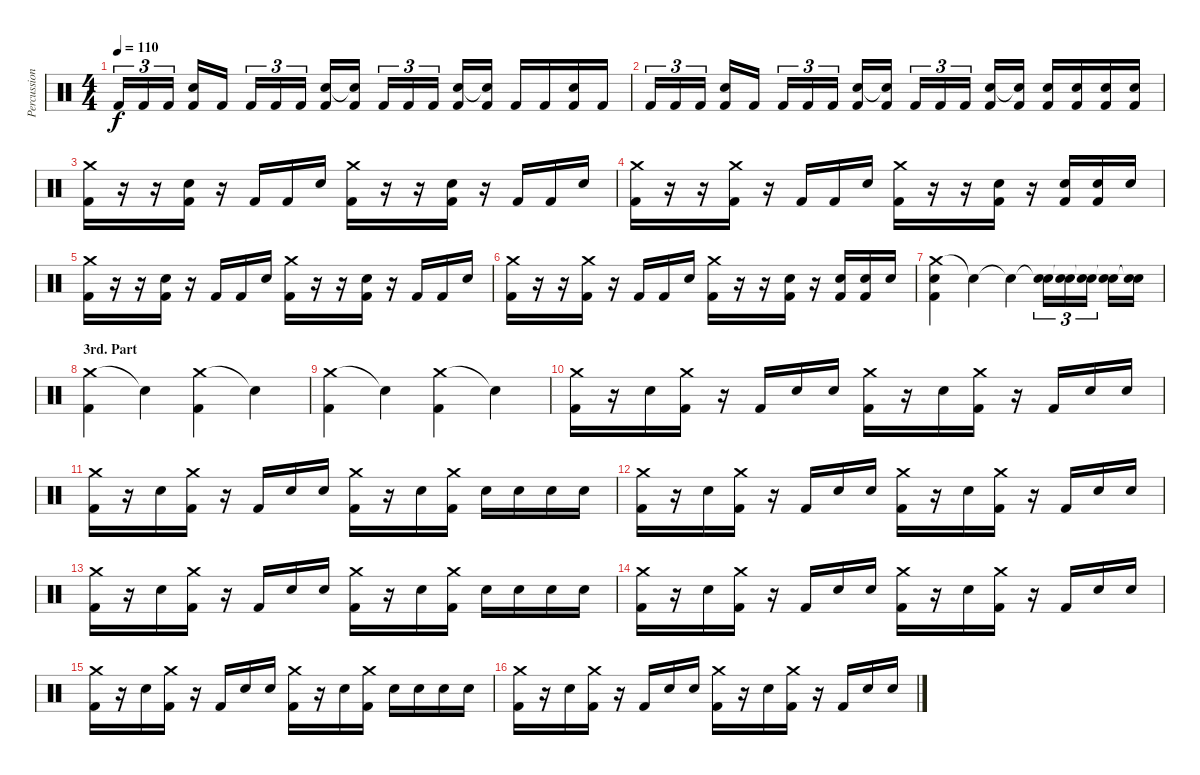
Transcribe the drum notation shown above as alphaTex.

\track ("Percussion" "Percussion") {instrument percussion}
\staff {score}
\articulation defaults
\ts (4 4)
\tempo 110
\clef neutral
\ks c "Kick (hit) 2".16{tu (3 2) dy f} "Kick (hit) 2".16{tu (3 2)} "Kick (hit) 2".16{tu (3 2)}
("Electric Snare (hit)" "Kick (hit) 2").16 "Kick (hit) 2".16 "Kick (hit) 2".16{tu (3 2)} "Kick (hit) 2".16{tu (3 2)} "Kick (hit) 2".16{tu (3 2)} ("Snare (hit) 2" "Kick (hit) 2").16 ("Snare (hit)"{t} "Kick (hit) 2").16 "Kick (hit) 2".16{tu (3 2)} "Kick (hit) 2".16{tu (3 2)} "Kick (hit) 2".16{tu (3 2)} ("Electric Snare (hit)" "Kick (hit) 2").16 ("Snare (hit)"{t} "Kick (hit) 2").16 "Kick (hit) 2".16 "Kick (hit) 2".16 ("Electric Snare (hit)" "Kick (hit) 2").16 "Kick (hit) 2".16 |
"Kick (hit) 2".16{tu (3 2)} "Kick (hit) 2".16{tu (3 2)} "Kick (hit) 2".16{tu (3 2)} ("Electric Snare (hit)" "Kick (hit) 2").16 "Kick (hit) 2".16 "Kick (hit) 2".16{tu (3 2)} "Kick (hit) 2".16{tu (3 2)} "Kick (hit) 2".16{tu (3 2)} ("Snare (hit) 2" "Kick (hit) 2").16 ("Snare (hit)"{t} "Kick (hit) 2").16 "Kick (hit) 2".16{tu (3 2)} "Kick (hit) 2".16{tu (3 2)} "Kick (hit) 2".16{tu (3 2)} ("Electric Snare (hit)" "Kick (hit) 2").16 ("Snare (hit)"{t} "Kick (hit) 2").16 ("Electric Snare (hit)" "Kick (hit) 2").16 ("Electric Snare (hit)" "Kick (hit) 2").16 ("Snare (hit) 2" "Kick (hit) 2").16 ("Electric Snare (hit)" "Kick (hit) 2").16 |
("Crash medium (hit)" "Kick (hit) 2").16 r.16 r.16 ("Electric Snare (hit)" "Kick (hit) 2").16 r.16 "Kick (hit) 2".16 "Kick (hit) 2".16 "Electric Snare (hit)".16 ("Crash medium (hit)" "Kick (hit) 2").16 r.16 r.16 ("Electric Snare (hit)" "Kick (hit) 2").16 r.16 "Kick (hit) 2".16 "Kick (hit) 2".16 "Electric Snare (hit)".16 |
("Crash medium (hit)" "Kick (hit) 2").16 r.16 r.16 ("Crash medium (hit)" "Kick (hit) 2").16 r.16 "Kick (hit) 2".16 "Kick (hit) 2".16 "Electric Snare (hit)".16 ("Crash medium (hit)" "Kick (hit) 2").16 r.16 r.16 ("Electric Snare (hit)" "Kick (hit) 2").16 r.16 ("Electric Snare (hit)" "Kick (hit) 2").16 ("Electric Snare (hit)" "Kick (hit) 2").16 "Electric Snare (hit)".16 |
("Crash medium (hit)" "Kick (hit) 2").16 r.16 r.16 ("Electric Snare (hit)" "Kick (hit) 2").16 r.16 "Kick (hit) 2".16 "Kick (hit) 2".16 "Electric Snare (hit)".16 ("Crash medium (hit)" "Kick (hit) 2").16 r.16 r.16 ("Electric Snare (hit)" "Kick (hit) 2").16 r.16 "Kick (hit) 2".16 "Kick (hit) 2".16 "Electric Snare (hit)".16 |
("Crash medium (hit)" "Kick (hit) 2").16 r.16 r.16 ("Crash medium (hit)" "Kick (hit) 2").16 r.16 "Kick (hit) 2".16 "Kick (hit) 2".16 "Electric Snare (hit)".16 ("Crash medium (hit)" "Kick (hit) 2").16 r.16 r.16 ("Electric Snare (hit)" "Kick (hit) 2").16 r.16 ("Electric Snare (hit)" "Kick (hit) 2").16 ("Electric Snare (hit)" "Kick (hit) 2").16 "Electric Snare (hit)".16 |
("Crash medium (hit)" "Kick (hit) 2" "Snare (hit) 2").4 "Snare (hit)"{t}.4 "Snare (hit)"{t}.4 ("Snare (hit)"{t} "Electric Snare (hit)").16{tu (3 2)} ("Snare (hit)"{t} "Electric Snare (hit)").16{tu (3 2)} ("Snare (hit)"{t} "Electric Snare (hit)").16{tu (3 2)} ("Snare (hit)"{t} "Snare (hit) 2").16 ("Snare (hit)"{t} "Electric Snare (hit)").16 |
\section ("" "3rd. Part")
("Crash medium (hit)" "Kick (hit) 2").4 "Snare (hit)"{t}.4 ("Crash medium (hit)" "Kick (hit) 2").4 "Snare (hit)"{t}.4 |
("Crash medium (hit)" "Kick (hit) 2").4 "Snare (hit)"{t}.4 ("Crash medium (hit)" "Kick (hit) 2").4 "Snare (hit)"{t}.4 |
("Crash medium (hit)" "Kick (hit) 2").16 r.16 "Snare (hit) 2".16 ("Crash medium (hit)" "Kick (hit) 2").16 r.16 "Kick (hit) 2".16 "Snare (hit) 2".16 "Electric Snare (hit)".16 ("Crash medium (hit)" "Kick (hit) 2").16 r.16 "Snare (hit) 2".16 ("Crash medium (hit)" "Kick (hit) 2").16 r.16 "Kick (hit) 2".16 "Snare (hit) 2".16 "Electric Snare (hit)".16 |
("Crash medium (hit)" "Kick (hit) 2").16 r.16 "Snare (hit) 2".16 ("Crash medium (hit)" "Kick (hit) 2").16 r.16 "Kick (hit) 2".16 "Snare (hit) 2".16 "Electric Snare (hit)".16 ("Crash medium (hit)" "Kick (hit) 2").16 r.16 "Snare (hit) 2".16 ("Crash medium (hit)" "Kick (hit) 2").16 "Snare (hit) 2".16 "Snare (hit) 2".16 "Snare (hit) 2".16 "Electric Snare (hit)".16 |
("Crash medium (hit)" "Kick (hit) 2").16 r.16 "Snare (hit) 2".16 ("Crash medium (hit)" "Kick (hit) 2").16 r.16 "Kick (hit) 2".16 "Snare (hit) 2".16 "Electric Snare (hit)".16 ("Crash medium (hit)" "Kick (hit) 2").16 r.16 "Snare (hit) 2".16 ("Crash medium (hit)" "Kick (hit) 2").16 r.16 "Kick (hit) 2".16 "Snare (hit) 2".16 "Electric Snare (hit)".16 |
("Crash medium (hit)" "Kick (hit) 2").16 r.16 "Snare (hit) 2".16 ("Crash medium (hit)" "Kick (hit) 2").16 r.16 "Kick (hit) 2".16 "Snare (hit) 2".16 "Electric Snare (hit)".16 ("Crash medium (hit)" "Kick (hit) 2").16 r.16 "Snare (hit) 2".16 ("Crash medium (hit)" "Kick (hit) 2").16 "Snare (hit) 2".16 "Snare (hit) 2".16 "Snare (hit) 2".16 "Electric Snare (hit)".16 |
("Crash medium (hit)" "Kick (hit) 2").16 r.16 "Snare (hit) 2".16 ("Crash medium (hit)" "Kick (hit) 2").16 r.16 "Kick (hit) 2".16 "Snare (hit) 2".16 "Electric Snare (hit)".16 ("Crash medium (hit)" "Kick (hit) 2").16 r.16 "Snare (hit) 2".16 ("Crash medium (hit)" "Kick (hit) 2").16 r.16 "Kick (hit) 2".16 "Snare (hit) 2".16 "Electric Snare (hit)".16 |
("Crash medium (hit)" "Kick (hit) 2").16 r.16 "Snare (hit) 2".16 ("Crash medium (hit)" "Kick (hit) 2").16 r.16 "Kick (hit) 2".16 "Snare (hit) 2".16 "Electric Snare (hit)".16 ("Crash medium (hit)" "Kick (hit) 2").16 r.16 "Snare (hit) 2".16 ("Crash medium (hit)" "Kick (hit) 2").16 "Snare (hit) 2".16 "Snare (hit) 2".16 "Snare (hit) 2".16 "Electric Snare (hit)".16 |
("Crash medium (hit)" "Kick (hit) 2").16 r.16 "Snare (hit) 2".16 ("Crash medium (hit)" "Kick (hit) 2").16 r.16 "Kick (hit) 2".16 "Snare (hit) 2".16 "Electric Snare (hit)".16 ("Crash medium (hit)" "Kick (hit) 2").16 r.16 "Snare (hit) 2".16 ("Crash medium (hit)" "Kick (hit) 2").16 r.16 "Kick (hit) 2".16 "Snare (hit) 2".16 "Electric Snare (hit)".16
